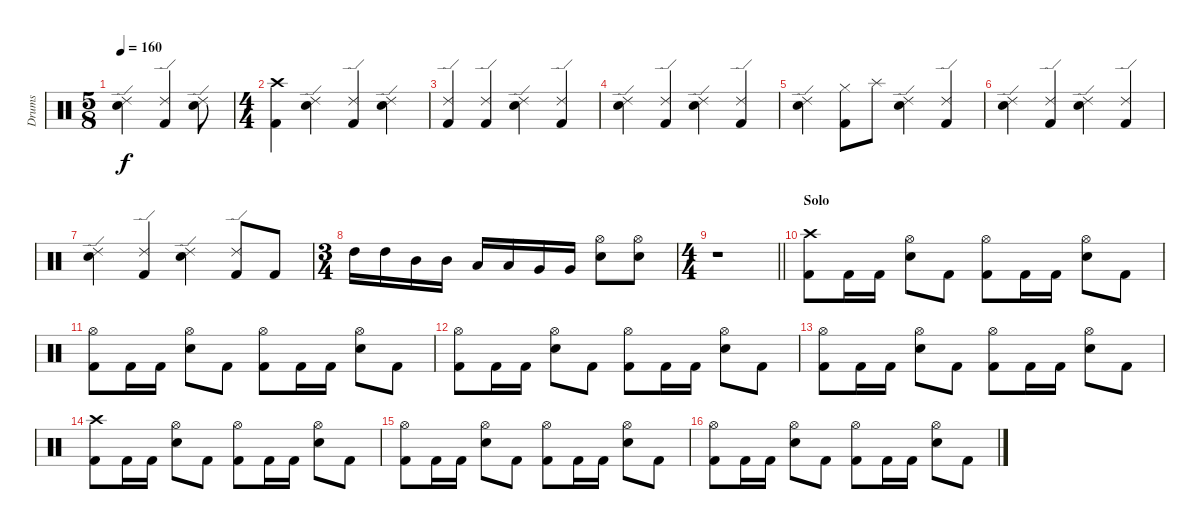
\track ("Drums" "Drums") {instrument percussion}
\staff {score}
\articulation defaults
\ts (5 8)
\tempo 160
\clef neutral
\ks c
("Ride (edge) 2" "Snare (hit) 2").4{dy f} ("Ride (edge) 2" "Kick (hit) 2").4 ("Ride (edge) 2" "Snare (hit) 2").8 |
\ts (4 4)
("Crash high (hit)" "Kick (hit) 2").4 ("Ride (edge) 2" "Snare (hit) 2").4 ("Ride (edge) 2" "Kick (hit) 2").4 ("Ride (edge) 2" "Snare (hit) 2").4 |
("Ride (edge) 2" "Kick (hit) 2").4 ("Ride (edge) 2" "Kick (hit) 2").4 ("Ride (edge) 2" "Snare (hit) 2").4 ("Ride (edge) 2" "Kick (hit) 2").4 |
("Ride (edge) 2" "Snare (hit) 2").4 ("Ride (edge) 2" "Kick (hit) 2").4 ("Ride (edge) 2" "Snare (hit) 2").4 ("Ride (edge) 2" "Kick (hit) 2").4 |
("Ride (edge) 2" "Snare (hit) 2").4 ("Hi-Hat (closed)" "Kick (hit) 2").8 "Splash (hit)".8 ("Ride (edge) 2" "Snare (hit) 2").4 ("Ride (edge) 2" "Kick (hit) 2").4 |
("Ride (edge) 2" "Snare (hit) 2").4 ("Ride (edge) 2" "Kick (hit) 2").4 ("Ride (edge) 2" "Snare (hit) 2").4 ("Ride (edge) 2" "Kick (hit) 2").4 |
("Ride (edge) 2" "Snare (hit) 2").4 ("Ride (edge) 2" "Kick (hit) 2").4 ("Ride (edge) 2" "Snare (hit) 2").4 ("Ride (edge) 2" "Kick (hit) 2").8 "Kick (hit) 2".8 |
\ts (3 4)
"High Tom (hit)".16 "High Tom (hit)".16 "Mid Tom (hit)".16 "Mid Tom (hit)".16 "Low Tom (hit)".16 "Low Tom (hit)".16 "Very Low Tom (hit)".16 "Very Low Tom (hit)".16 ("Hi-Hat (open)" "Snare (hit) 2").8 ("Hi-Hat (open)" "Snare (hit) 2").8 |
\ts (4 4)
\barLineRight lightlight
r.1 |
\section ("" "Solo")
("Crash high (hit)" "Kick (hit) 2").8 "Kick (hit) 2".16 "Kick (hit) 2".16 ("Hi-Hat (open)" "Snare (hit) 2").8 "Kick (hit) 2".8 ("Hi-Hat (open)" "Kick (hit) 2").8 "Kick (hit) 2".16 "Kick (hit) 2".16 ("Hi-Hat (open)" "Snare (hit) 2").8 "Kick (hit) 2".8 |
("Hi-Hat (open)" "Kick (hit) 2").8 "Kick (hit) 2".16 "Kick (hit) 2".16 ("Hi-Hat (open)" "Snare (hit) 2").8 "Kick (hit) 2".8 ("Hi-Hat (open)" "Kick (hit) 2").8 "Kick (hit) 2".16 "Kick (hit) 2".16 ("Hi-Hat (open)" "Snare (hit) 2").8 "Kick (hit) 2".8 |
("Hi-Hat (open)" "Kick (hit) 2").8 "Kick (hit) 2".16 "Kick (hit) 2".16 ("Hi-Hat (open)" "Snare (hit) 2").8 "Kick (hit) 2".8 ("Hi-Hat (open)" "Kick (hit) 2").8 "Kick (hit) 2".16 "Kick (hit) 2".16 ("Hi-Hat (open)" "Snare (hit) 2").8 "Kick (hit) 2".8 |
("Hi-Hat (open)" "Kick (hit) 2").8 "Kick (hit) 2".16 "Kick (hit) 2".16 ("Hi-Hat (open)" "Snare (hit) 2").8 "Kick (hit) 2".8 ("Hi-Hat (open)" "Kick (hit) 2").8 "Kick (hit) 2".16 "Kick (hit) 2".16 ("Hi-Hat (open)" "Snare (hit) 2").8 "Kick (hit) 2".8 |
("Crash high (hit)" "Kick (hit) 2").8 "Kick (hit) 2".16 "Kick (hit) 2".16 ("Hi-Hat (open)" "Snare (hit) 2").8 "Kick (hit) 2".8 ("Hi-Hat (open)" "Kick (hit) 2").8 "Kick (hit) 2".16 "Kick (hit) 2".16 ("Hi-Hat (open)" "Snare (hit) 2").8 "Kick (hit) 2".8 |
("Hi-Hat (open)" "Kick (hit) 2").8 "Kick (hit) 2".16 "Kick (hit) 2".16 ("Hi-Hat (open)" "Snare (hit) 2").8 "Kick (hit) 2".8 ("Hi-Hat (open)" "Kick (hit) 2").8 "Kick (hit) 2".16 "Kick (hit) 2".16 ("Hi-Hat (open)" "Snare (hit) 2").8 "Kick (hit) 2".8 |
("Hi-Hat (open)" "Kick (hit) 2").8 "Kick (hit) 2".16 "Kick (hit) 2".16 ("Hi-Hat (open)" "Snare (hit) 2").8 "Kick (hit) 2".8 ("Hi-Hat (open)" "Kick (hit) 2").8 "Kick (hit) 2".16 "Kick (hit) 2".16 ("Hi-Hat (open)" "Snare (hit) 2").8 "Kick (hit) 2".8
